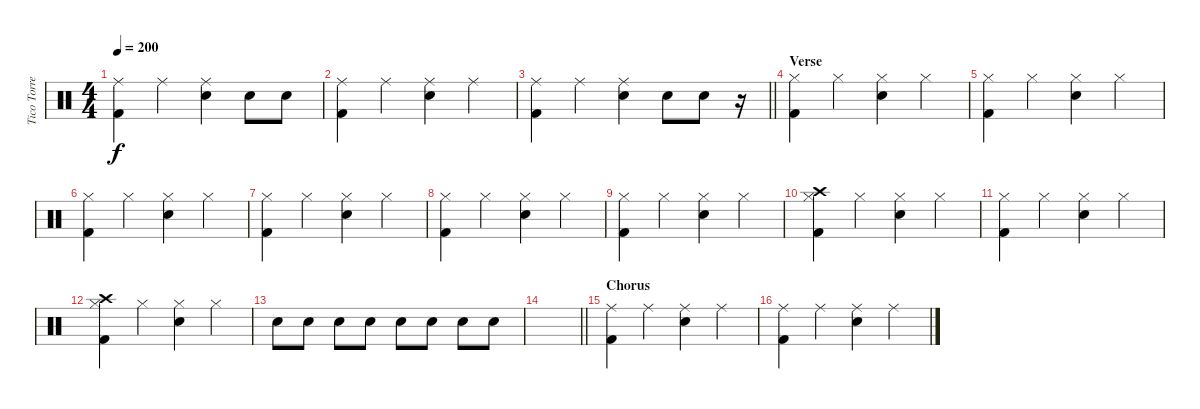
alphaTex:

\track ("Tico Torres" "Tico Torre") {instrument percussion}
\staff {score}
\articulation defaults
\ts (4 4)
\tempo 200
\clef neutral
\ks c
("Ride (middle)" "Kick (hit) 2").4{dy f} "Ride (middle)".4 ("Snare (hit) 2" "Ride (middle)").4 "Snare (hit) 2".8 "Snare (hit) 2".8 |
("Ride (middle)" "Kick (hit) 2").4 "Ride (middle)".4 ("Snare (hit) 2" "Ride (middle)").4 "Ride (middle)".4 |
\barLineRight lightlight
("Ride (middle)" "Kick (hit) 2").4 "Ride (middle)".4 ("Snare (hit) 2" "Ride (middle)").4 "Snare (hit) 2".8 "Snare (hit) 2".8 r.16 |
\section ("" "Verse")
("Hi-Hat (closed)" "Kick (hit) 2").4 "Hi-Hat (closed)".4 ("Snare (hit) 2" "Hi-Hat (closed)").4 "Hi-Hat (closed)".4 |
("Hi-Hat (closed)" "Kick (hit) 2").4 "Hi-Hat (closed)".4 ("Snare (hit) 2" "Hi-Hat (closed)").4 "Hi-Hat (closed)".4 |
("Hi-Hat (closed)" "Kick (hit) 2").4 "Hi-Hat (closed)".4 ("Snare (hit) 2" "Hi-Hat (closed)").4 "Hi-Hat (closed)".4 |
("Hi-Hat (closed)" "Kick (hit) 2").4 "Hi-Hat (closed)".4 ("Snare (hit) 2" "Hi-Hat (closed)").4 "Hi-Hat (closed)".4 |
("Hi-Hat (closed)" "Kick (hit) 2").4 "Hi-Hat (closed)".4 ("Snare (hit) 2" "Hi-Hat (closed)").4 "Hi-Hat (closed)".4 |
("Hi-Hat (closed)" "Kick (hit) 2").4 "Hi-Hat (closed)".4 ("Snare (hit) 2" "Hi-Hat (closed)").4 "Hi-Hat (closed)".4 |
("Crash high (hit)" "Hi-Hat (closed)" "Kick (hit) 2").4 "Hi-Hat (closed)".4 ("Snare (hit) 2" "Hi-Hat (closed)").4 "Hi-Hat (closed)".4 |
("Hi-Hat (closed)" "Kick (hit) 2").4 "Hi-Hat (closed)".4 ("Snare (hit) 2" "Hi-Hat (closed)").4 "Hi-Hat (closed)".4 |
("Crash high (hit)" "Hi-Hat (closed)" "Kick (hit) 2").4 "Hi-Hat (closed)".4 ("Snare (hit) 2" "Hi-Hat (closed)").4 "Hi-Hat (closed)".4 |
"Snare (hit) 2".8 "Snare (hit) 2".8 "Snare (hit) 2".8 "Snare (hit) 2".8 "Snare (hit) 2".8 "Snare (hit) 2".8 "Snare (hit) 2".8 "Snare (hit) 2".8 |
\barLineRight lightlight
|
\section ("" "Chorus")
("Ride (middle)" "Kick (hit) 2").4 "Ride (middle)".4 ("Snare (hit) 2" "Ride (middle)").4 "Ride (middle)".4 |
("Ride (middle)" "Kick (hit) 2").4 "Ride (middle)".4 ("Snare (hit) 2" "Ride (middle)").4 "Ride (middle)".4
